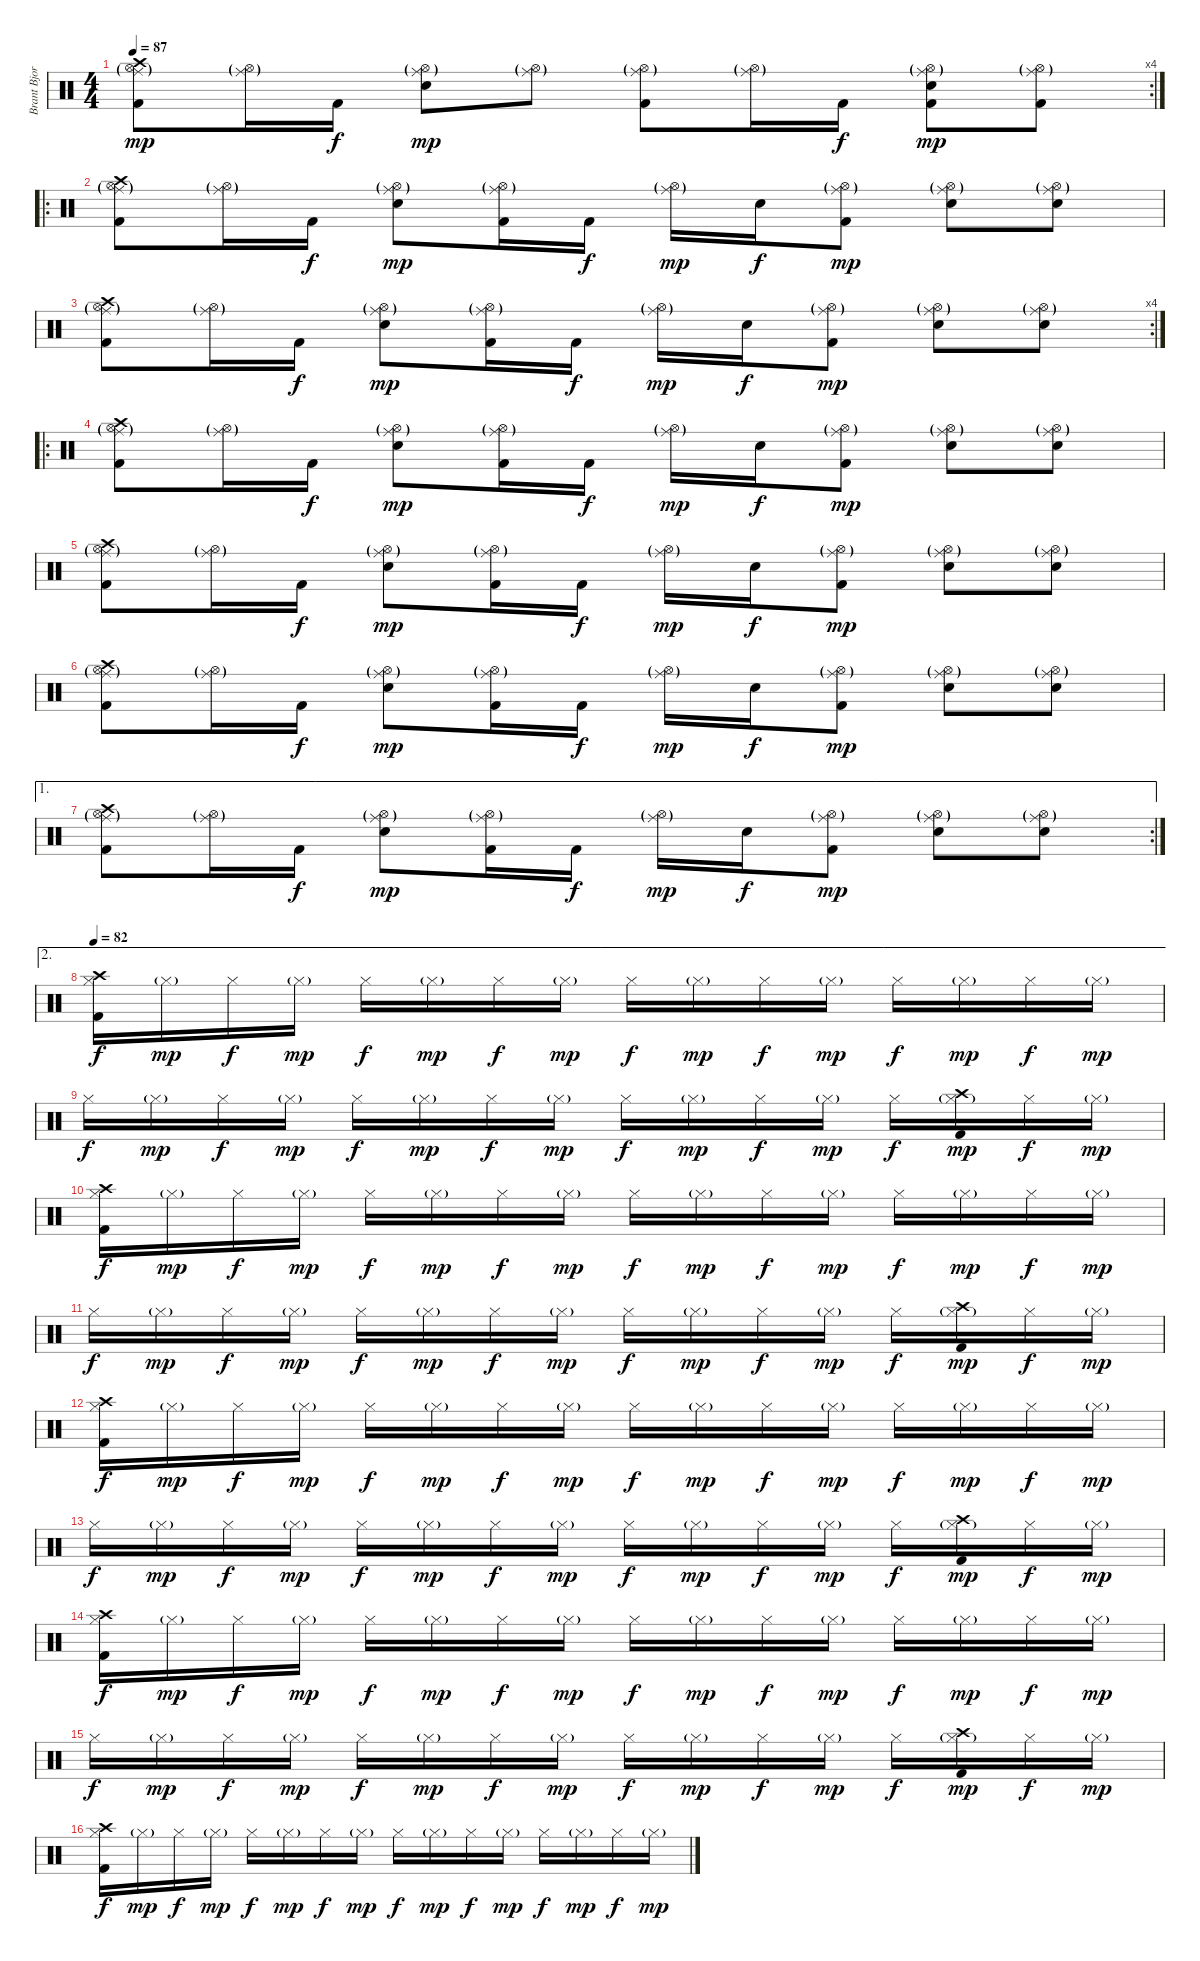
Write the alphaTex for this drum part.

\track ("Brant Bjork" "Brant Bjor") {instrument percussion}
\staff {score}
\articulation defaults
\rc 4
\ts (4 4)
\tempo 87
\clef neutral
\ks c
("Crash high (hit)" "Hi-Hat (open)"{g} "Ride (middle)"{g} "Kick (hit) 2").8{dy mp} ("Hi-Hat (open)"{g} "Ride (middle)"{g}).16 "Kick (hit) 2".16{dy f} ("Hi-Hat (open)"{g} "Ride (middle)"{g} "Electric Snare (hit)").8{dy mp} ("Hi-Hat (open)"{g} "Ride (middle)"{g}).8 ("Hi-Hat (open)"{g} "Ride (middle)"{g} "Kick (hit) 2").8 ("Hi-Hat (open)"{g} "Ride (middle)"{g}).16 "Kick (hit) 2".16{dy f} ("Hi-Hat (open)"{g} "Ride (middle)"{g} "Electric Snare (hit)" "Kick (hit) 2").8{dy mp} ("Hi-Hat (open)"{g} "Ride (middle)"{g} "Kick (hit) 2").8 |
\ro
("Crash high (hit)" "Hi-Hat (open)"{g} "Ride (middle)"{g} "Kick (hit) 2").8 ("Hi-Hat (open)"{g} "Ride (middle)"{g}).16 "Kick (hit) 2".16{dy f} ("Hi-Hat (open)"{g} "Ride (middle)"{g} "Electric Snare (hit)").8{dy mp} ("Hi-Hat (open)"{g} "Ride (middle)"{g} "Kick (hit) 2").16 "Kick (hit) 2".16{dy f} ("Hi-Hat (open)"{g} "Ride (middle)"{g}).16{dy mp} "Electric Snare (hit)".16{dy f} ("Hi-Hat (open)"{g} "Ride (middle)"{g} "Kick (hit) 2").8{dy mp} ("Hi-Hat (open)"{g} "Ride (middle)"{g} "Electric Snare (hit)").8 ("Hi-Hat (open)"{g} "Ride (middle)"{g} "Electric Snare (hit)").8 |
\rc 4
("Crash high (hit)" "Hi-Hat (open)"{g} "Ride (middle)"{g} "Kick (hit) 2").8 ("Hi-Hat (open)"{g} "Ride (middle)"{g}).16 "Kick (hit) 2".16{dy f} ("Hi-Hat (open)"{g} "Ride (middle)"{g} "Electric Snare (hit)").8{dy mp} ("Hi-Hat (open)"{g} "Ride (middle)"{g} "Kick (hit) 2").16 "Kick (hit) 2".16{dy f} ("Hi-Hat (open)"{g} "Ride (middle)"{g}).16{dy mp} "Electric Snare (hit)".16{dy f} ("Hi-Hat (open)"{g} "Ride (middle)"{g} "Kick (hit) 2").8{dy mp} ("Hi-Hat (open)"{g} "Ride (middle)"{g} "Electric Snare (hit)").8 ("Hi-Hat (open)"{g} "Ride (middle)"{g} "Electric Snare (hit)").8 |
\ro
("Crash high (hit)" "Hi-Hat (open)"{g} "Ride (middle)"{g} "Kick (hit) 2").8 ("Hi-Hat (open)"{g} "Ride (middle)"{g}).16 "Kick (hit) 2".16{dy f} ("Hi-Hat (open)"{g} "Ride (middle)"{g} "Electric Snare (hit)").8{dy mp} ("Hi-Hat (open)"{g} "Ride (middle)"{g} "Kick (hit) 2").16 "Kick (hit) 2".16{dy f} ("Hi-Hat (open)"{g} "Ride (middle)"{g}).16{dy mp} "Electric Snare (hit)".16{dy f} ("Hi-Hat (open)"{g} "Ride (middle)"{g} "Kick (hit) 2").8{dy mp} ("Hi-Hat (open)"{g} "Ride (middle)"{g} "Electric Snare (hit)").8 ("Hi-Hat (open)"{g} "Ride (middle)"{g} "Electric Snare (hit)").8 |
("Crash high (hit)" "Hi-Hat (open)"{g} "Ride (middle)"{g} "Kick (hit) 2").8 ("Hi-Hat (open)"{g} "Ride (middle)"{g}).16 "Kick (hit) 2".16{dy f} ("Hi-Hat (open)"{g} "Ride (middle)"{g} "Electric Snare (hit)").8{dy mp} ("Hi-Hat (open)"{g} "Ride (middle)"{g} "Kick (hit) 2").16 "Kick (hit) 2".16{dy f} ("Hi-Hat (open)"{g} "Ride (middle)"{g}).16{dy mp} "Electric Snare (hit)".16{dy f} ("Hi-Hat (open)"{g} "Ride (middle)"{g} "Kick (hit) 2").8{dy mp} ("Hi-Hat (open)"{g} "Ride (middle)"{g} "Electric Snare (hit)").8 ("Hi-Hat (open)"{g} "Ride (middle)"{g} "Electric Snare (hit)").8 |
("Crash high (hit)" "Hi-Hat (open)"{g} "Ride (middle)"{g} "Kick (hit) 2").8 ("Hi-Hat (open)"{g} "Ride (middle)"{g}).16 "Kick (hit) 2".16{dy f} ("Hi-Hat (open)"{g} "Ride (middle)"{g} "Electric Snare (hit)").8{dy mp} ("Hi-Hat (open)"{g} "Ride (middle)"{g} "Kick (hit) 2").16 "Kick (hit) 2".16{dy f} ("Hi-Hat (open)"{g} "Ride (middle)"{g}).16{dy mp} "Electric Snare (hit)".16{dy f} ("Hi-Hat (open)"{g} "Ride (middle)"{g} "Kick (hit) 2").8{dy mp} ("Hi-Hat (open)"{g} "Ride (middle)"{g} "Electric Snare (hit)").8 ("Hi-Hat (open)"{g} "Ride (middle)"{g} "Electric Snare (hit)").8 |
\ae 1
\rc 2
("Crash high (hit)" "Hi-Hat (open)"{g} "Ride (middle)"{g} "Kick (hit) 2").8 ("Hi-Hat (open)"{g} "Ride (middle)"{g}).16 "Kick (hit) 2".16{dy f} ("Hi-Hat (open)"{g} "Ride (middle)"{g} "Electric Snare (hit)").8{dy mp} ("Hi-Hat (open)"{g} "Ride (middle)"{g} "Kick (hit) 2").16 "Kick (hit) 2".16{dy f} ("Hi-Hat (open)"{g} "Ride (middle)"{g}).16{dy mp} "Electric Snare (hit)".16{dy f} ("Hi-Hat (open)"{g} "Ride (middle)"{g} "Kick (hit) 2").8{dy mp} ("Hi-Hat (open)"{g} "Ride (middle)"{g} "Electric Snare (hit)").8 ("Hi-Hat (open)"{g} "Ride (middle)"{g} "Electric Snare (hit)").8 |
\ae 2
\tempo 82
("Crash high (hit)" "Kick (hit) 2" "Hi-Hat (closed)").16{dy f volume 9} "Hi-Hat (closed)"{g}.16{dy mp} "Hi-Hat (closed)".16{dy f} "Hi-Hat (closed)"{g}.16{dy mp} "Hi-Hat (closed)".16{dy f} "Hi-Hat (closed)"{g}.16{dy mp} "Hi-Hat (closed)".16{dy f} "Hi-Hat (closed)"{g}.16{dy mp} "Hi-Hat (closed)".16{dy f} "Hi-Hat (closed)"{g}.16{dy mp} "Hi-Hat (closed)".16{dy f} "Hi-Hat (closed)"{g}.16{dy mp} "Hi-Hat (closed)".16{dy f} "Hi-Hat (closed)"{g}.16{dy mp} "Hi-Hat (closed)".16{dy f} "Hi-Hat (closed)"{g}.16{dy mp} |
"Hi-Hat (closed)".16{dy f} "Hi-Hat (closed)"{g}.16{dy mp} "Hi-Hat (closed)".16{dy f} "Hi-Hat (closed)"{g}.16{dy mp} "Hi-Hat (closed)".16{dy f} "Hi-Hat (closed)"{g}.16{dy mp} "Hi-Hat (closed)".16{dy f} "Hi-Hat (closed)"{g}.16{dy mp} "Hi-Hat (closed)".16{dy f} "Hi-Hat (closed)"{g}.16{dy mp} "Hi-Hat (closed)".16{dy f} "Hi-Hat (closed)"{g}.16{dy mp} "Hi-Hat (closed)".16{dy f} ("Crash high (hit)" "Kick (hit) 2" "Hi-Hat (closed)"{g}).16{dy mp} "Hi-Hat (closed)".16{dy f} "Hi-Hat (closed)"{g}.16{dy mp} |
("Crash high (hit)" "Kick (hit) 2" "Hi-Hat (closed)").16{dy f} "Hi-Hat (closed)"{g}.16{dy mp} "Hi-Hat (closed)".16{dy f} "Hi-Hat (closed)"{g}.16{dy mp} "Hi-Hat (closed)".16{dy f} "Hi-Hat (closed)"{g}.16{dy mp} "Hi-Hat (closed)".16{dy f} "Hi-Hat (closed)"{g}.16{dy mp} "Hi-Hat (closed)".16{dy f} "Hi-Hat (closed)"{g}.16{dy mp} "Hi-Hat (closed)".16{dy f} "Hi-Hat (closed)"{g}.16{dy mp} "Hi-Hat (closed)".16{dy f} "Hi-Hat (closed)"{g}.16{dy mp} "Hi-Hat (closed)".16{dy f} "Hi-Hat (closed)"{g}.16{dy mp} |
"Hi-Hat (closed)".16{dy f} "Hi-Hat (closed)"{g}.16{dy mp} "Hi-Hat (closed)".16{dy f} "Hi-Hat (closed)"{g}.16{dy mp} "Hi-Hat (closed)".16{dy f} "Hi-Hat (closed)"{g}.16{dy mp} "Hi-Hat (closed)".16{dy f} "Hi-Hat (closed)"{g}.16{dy mp} "Hi-Hat (closed)".16{dy f} "Hi-Hat (closed)"{g}.16{dy mp} "Hi-Hat (closed)".16{dy f} "Hi-Hat (closed)"{g}.16{dy mp} "Hi-Hat (closed)".16{dy f} ("Crash high (hit)" "Kick (hit) 2" "Hi-Hat (closed)"{g}).16{dy mp} "Hi-Hat (closed)".16{dy f} "Hi-Hat (closed)"{g}.16{dy mp} |
("Crash high (hit)" "Kick (hit) 2" "Hi-Hat (closed)").16{dy f} "Hi-Hat (closed)"{g}.16{dy mp} "Hi-Hat (closed)".16{dy f} "Hi-Hat (closed)"{g}.16{dy mp} "Hi-Hat (closed)".16{dy f} "Hi-Hat (closed)"{g}.16{dy mp} "Hi-Hat (closed)".16{dy f} "Hi-Hat (closed)"{g}.16{dy mp} "Hi-Hat (closed)".16{dy f} "Hi-Hat (closed)"{g}.16{dy mp} "Hi-Hat (closed)".16{dy f} "Hi-Hat (closed)"{g}.16{dy mp} "Hi-Hat (closed)".16{dy f} "Hi-Hat (closed)"{g}.16{dy mp} "Hi-Hat (closed)".16{dy f} "Hi-Hat (closed)"{g}.16{dy mp} |
"Hi-Hat (closed)".16{dy f} "Hi-Hat (closed)"{g}.16{dy mp} "Hi-Hat (closed)".16{dy f} "Hi-Hat (closed)"{g}.16{dy mp} "Hi-Hat (closed)".16{dy f} "Hi-Hat (closed)"{g}.16{dy mp} "Hi-Hat (closed)".16{dy f} "Hi-Hat (closed)"{g}.16{dy mp} "Hi-Hat (closed)".16{dy f} "Hi-Hat (closed)"{g}.16{dy mp} "Hi-Hat (closed)".16{dy f} "Hi-Hat (closed)"{g}.16{dy mp} "Hi-Hat (closed)".16{dy f} ("Crash high (hit)" "Kick (hit) 2" "Hi-Hat (closed)"{g}).16{dy mp} "Hi-Hat (closed)".16{dy f} "Hi-Hat (closed)"{g}.16{dy mp} |
("Crash high (hit)" "Kick (hit) 2" "Hi-Hat (closed)").16{dy f} "Hi-Hat (closed)"{g}.16{dy mp} "Hi-Hat (closed)".16{dy f} "Hi-Hat (closed)"{g}.16{dy mp} "Hi-Hat (closed)".16{dy f} "Hi-Hat (closed)"{g}.16{dy mp} "Hi-Hat (closed)".16{dy f} "Hi-Hat (closed)"{g}.16{dy mp} "Hi-Hat (closed)".16{dy f} "Hi-Hat (closed)"{g}.16{dy mp} "Hi-Hat (closed)".16{dy f} "Hi-Hat (closed)"{g}.16{dy mp} "Hi-Hat (closed)".16{dy f} "Hi-Hat (closed)"{g}.16{dy mp} "Hi-Hat (closed)".16{dy f} "Hi-Hat (closed)"{g}.16{dy mp} |
"Hi-Hat (closed)".16{dy f} "Hi-Hat (closed)"{g}.16{dy mp} "Hi-Hat (closed)".16{dy f} "Hi-Hat (closed)"{g}.16{dy mp} "Hi-Hat (closed)".16{dy f} "Hi-Hat (closed)"{g}.16{dy mp} "Hi-Hat (closed)".16{dy f} "Hi-Hat (closed)"{g}.16{dy mp} "Hi-Hat (closed)".16{dy f} "Hi-Hat (closed)"{g}.16{dy mp} "Hi-Hat (closed)".16{dy f} "Hi-Hat (closed)"{g}.16{dy mp} "Hi-Hat (closed)".16{dy f} ("Crash high (hit)" "Kick (hit) 2" "Hi-Hat (closed)"{g}).16{dy mp} "Hi-Hat (closed)".16{dy f} "Hi-Hat (closed)"{g}.16{dy mp} |
("Crash high (hit)" "Kick (hit) 2" "Hi-Hat (closed)").16{dy f} "Hi-Hat (closed)"{g}.16{dy mp} "Hi-Hat (closed)".16{dy f} "Hi-Hat (closed)"{g}.16{dy mp} "Hi-Hat (closed)".16{dy f} "Hi-Hat (closed)"{g}.16{dy mp} "Hi-Hat (closed)".16{dy f} "Hi-Hat (closed)"{g}.16{dy mp} "Hi-Hat (closed)".16{dy f} "Hi-Hat (closed)"{g}.16{dy mp} "Hi-Hat (closed)".16{dy f} "Hi-Hat (closed)"{g}.16{dy mp} "Hi-Hat (closed)".16{dy f} "Hi-Hat (closed)"{g}.16{dy mp} "Hi-Hat (closed)".16{dy f} "Hi-Hat (closed)"{g}.16{dy mp}
